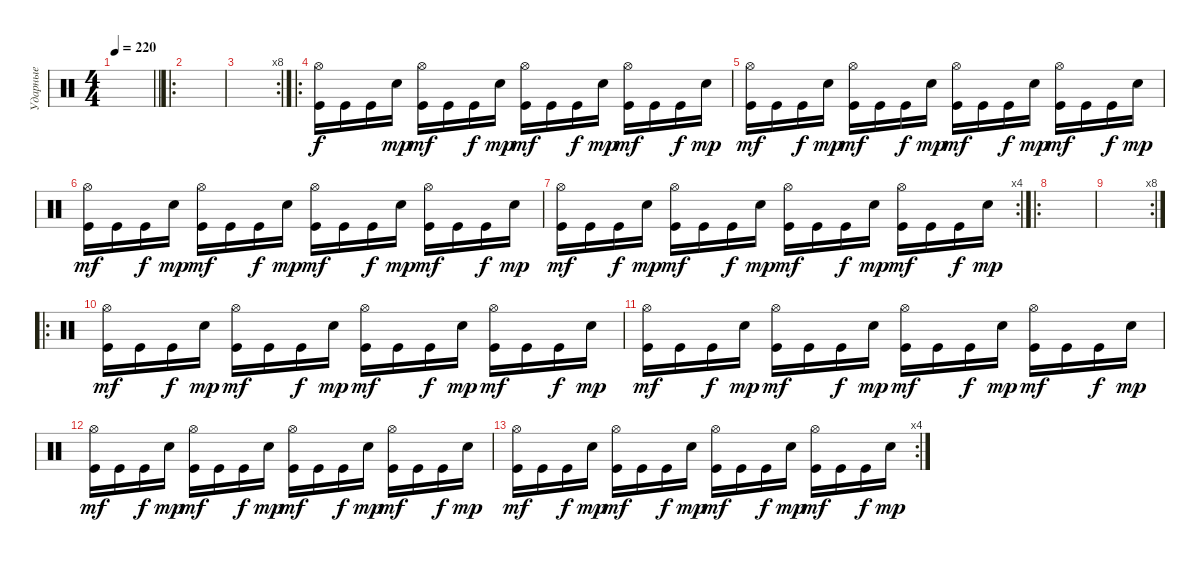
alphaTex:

\track ("Ударные" "Ударные") {instrument percussion}
\staff {score}
\articulation defaults
\ts (4 4)
\tempo 220
\clef neutral
\barLineRight lightlight
\ks c
|
\ro
|
\rc 8
|
\ro
("Hi-Hat (open)" "Kick (hit)").16 "Kick (hit)".16 "Kick (hit)".16{dy f} "Electric Snare (hit)".16{dy mp} ("Hi-Hat (open)" "Kick (hit)").16{dy mf} "Kick (hit)".16 "Kick (hit)".16{dy f} "Electric Snare (hit)".16{dy mp} ("Hi-Hat (open)" "Kick (hit)").16{dy mf} "Kick (hit)".16 "Kick (hit)".16{dy f} "Electric Snare (hit)".16{dy mp} ("Hi-Hat (open)" "Kick (hit)").16{dy mf} "Kick (hit)".16 "Kick (hit)".16{dy f} "Electric Snare (hit)".16{dy mp} |
("Hi-Hat (open)" "Kick (hit)").16{dy mf} "Kick (hit)".16 "Kick (hit)".16{dy f} "Electric Snare (hit)".16{dy mp} ("Hi-Hat (open)" "Kick (hit)").16{dy mf} "Kick (hit)".16 "Kick (hit)".16{dy f} "Electric Snare (hit)".16{dy mp} ("Hi-Hat (open)" "Kick (hit)").16{dy mf} "Kick (hit)".16 "Kick (hit)".16{dy f} "Electric Snare (hit)".16{dy mp} ("Hi-Hat (open)" "Kick (hit)").16{dy mf} "Kick (hit)".16 "Kick (hit)".16{dy f} "Electric Snare (hit)".16{dy mp} |
("Hi-Hat (open)" "Kick (hit)").16{dy mf} "Kick (hit)".16 "Kick (hit)".16{dy f} "Electric Snare (hit)".16{dy mp} ("Hi-Hat (open)" "Kick (hit)").16{dy mf} "Kick (hit)".16 "Kick (hit)".16{dy f} "Electric Snare (hit)".16{dy mp} ("Hi-Hat (open)" "Kick (hit)").16{dy mf} "Kick (hit)".16 "Kick (hit)".16{dy f} "Electric Snare (hit)".16{dy mp} ("Hi-Hat (open)" "Kick (hit)").16{dy mf} "Kick (hit)".16 "Kick (hit)".16{dy f} "Electric Snare (hit)".16{dy mp} |
\rc 4
("Hi-Hat (open)" "Kick (hit)").16{dy mf} "Kick (hit)".16 "Kick (hit)".16{dy f} "Electric Snare (hit)".16{dy mp} ("Hi-Hat (open)" "Kick (hit)").16{dy mf} "Kick (hit)".16 "Kick (hit)".16{dy f} "Electric Snare (hit)".16{dy mp} ("Hi-Hat (open)" "Kick (hit)").16{dy mf} "Kick (hit)".16 "Kick (hit)".16{dy f} "Electric Snare (hit)".16{dy mp} ("Hi-Hat (open)" "Kick (hit)").16{dy mf} "Kick (hit)".16 "Kick (hit)".16{dy f} "Electric Snare (hit)".16{dy mp} |
\ro
|
\rc 8
|
\ro
("Hi-Hat (open)" "Kick (hit)").16{dy mf} "Kick (hit)".16 "Kick (hit)".16{dy f} "Electric Snare (hit)".16{dy mp} ("Hi-Hat (open)" "Kick (hit)").16{dy mf} "Kick (hit)".16 "Kick (hit)".16{dy f} "Electric Snare (hit)".16{dy mp} ("Hi-Hat (open)" "Kick (hit)").16{dy mf} "Kick (hit)".16 "Kick (hit)".16{dy f} "Electric Snare (hit)".16{dy mp} ("Hi-Hat (open)" "Kick (hit)").16{dy mf} "Kick (hit)".16 "Kick (hit)".16{dy f} "Electric Snare (hit)".16{dy mp} |
("Hi-Hat (open)" "Kick (hit)").16{dy mf} "Kick (hit)".16 "Kick (hit)".16{dy f} "Electric Snare (hit)".16{dy mp} ("Hi-Hat (open)" "Kick (hit)").16{dy mf} "Kick (hit)".16 "Kick (hit)".16{dy f} "Electric Snare (hit)".16{dy mp} ("Hi-Hat (open)" "Kick (hit)").16{dy mf} "Kick (hit)".16 "Kick (hit)".16{dy f} "Electric Snare (hit)".16{dy mp} ("Hi-Hat (open)" "Kick (hit)").16{dy mf} "Kick (hit)".16 "Kick (hit)".16{dy f} "Electric Snare (hit)".16{dy mp} |
("Hi-Hat (open)" "Kick (hit)").16{dy mf} "Kick (hit)".16 "Kick (hit)".16{dy f} "Electric Snare (hit)".16{dy mp} ("Hi-Hat (open)" "Kick (hit)").16{dy mf} "Kick (hit)".16 "Kick (hit)".16{dy f} "Electric Snare (hit)".16{dy mp} ("Hi-Hat (open)" "Kick (hit)").16{dy mf} "Kick (hit)".16 "Kick (hit)".16{dy f} "Electric Snare (hit)".16{dy mp} ("Hi-Hat (open)" "Kick (hit)").16{dy mf} "Kick (hit)".16 "Kick (hit)".16{dy f} "Electric Snare (hit)".16{dy mp} |
\rc 4
("Hi-Hat (open)" "Kick (hit)").16{dy mf} "Kick (hit)".16 "Kick (hit)".16{dy f} "Electric Snare (hit)".16{dy mp} ("Hi-Hat (open)" "Kick (hit)").16{dy mf} "Kick (hit)".16 "Kick (hit)".16{dy f} "Electric Snare (hit)".16{dy mp} ("Hi-Hat (open)" "Kick (hit)").16{dy mf} "Kick (hit)".16 "Kick (hit)".16{dy f} "Electric Snare (hit)".16{dy mp} ("Hi-Hat (open)" "Kick (hit)").16{dy mf} "Kick (hit)".16 "Kick (hit)".16{dy f} "Electric Snare (hit)".16{dy mp}
